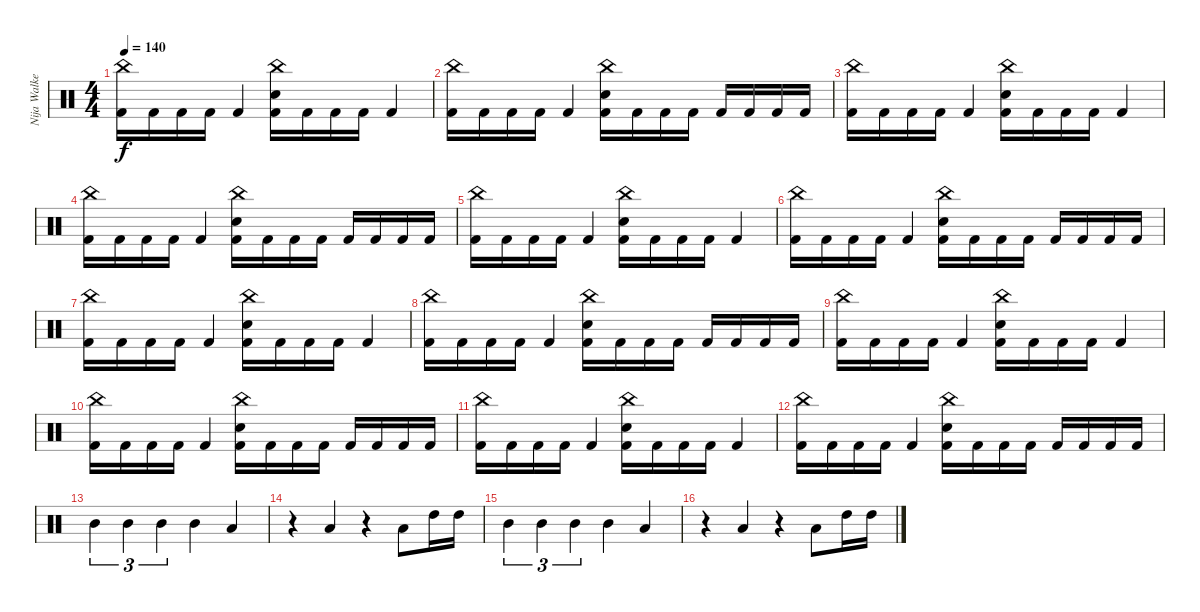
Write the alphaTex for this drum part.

\track ("Nija Walker" "Nija Walke") {instrument percussion bank 151}
\staff {score}
\articulation defaults
\ts (4 4)
\tempo 140
\clef neutral
\ks c
("China (hit)" "Kick (hit) 2").16{dy f} "Kick (hit) 2".16 "Kick (hit) 2".16 "Kick (hit) 2".16 "Kick (hit) 2".4 ("China (hit)" "Electric Snare (hit)" "Kick (hit) 2").16 "Kick (hit) 2".16 "Kick (hit) 2".16 "Kick (hit) 2".16 "Kick (hit) 2".4 |
("China (hit)" "Kick (hit) 2").16 "Kick (hit) 2".16 "Kick (hit) 2".16 "Kick (hit) 2".16 "Kick (hit) 2".4 ("China (hit)" "Electric Snare (hit)" "Kick (hit) 2").16 "Kick (hit) 2".16 "Kick (hit) 2".16 "Kick (hit) 2".16 "Kick (hit) 2".16 "Kick (hit) 2".16 "Kick (hit) 2".16 "Kick (hit) 2".16 |
("China (hit)" "Kick (hit) 2").16 "Kick (hit) 2".16 "Kick (hit) 2".16 "Kick (hit) 2".16 "Kick (hit) 2".4 ("China (hit)" "Electric Snare (hit)" "Kick (hit) 2").16 "Kick (hit) 2".16 "Kick (hit) 2".16 "Kick (hit) 2".16 "Kick (hit) 2".4 |
("China (hit)" "Kick (hit) 2").16 "Kick (hit) 2".16 "Kick (hit) 2".16 "Kick (hit) 2".16 "Kick (hit) 2".4 ("China (hit)" "Electric Snare (hit)" "Kick (hit) 2").16 "Kick (hit) 2".16 "Kick (hit) 2".16 "Kick (hit) 2".16 "Kick (hit) 2".16 "Kick (hit) 2".16 "Kick (hit) 2".16 "Kick (hit) 2".16 |
("China (hit)" "Kick (hit) 2").16 "Kick (hit) 2".16 "Kick (hit) 2".16 "Kick (hit) 2".16 "Kick (hit) 2".4 ("China (hit)" "Electric Snare (hit)" "Kick (hit) 2").16 "Kick (hit) 2".16 "Kick (hit) 2".16 "Kick (hit) 2".16 "Kick (hit) 2".4 |
("China (hit)" "Kick (hit) 2").16 "Kick (hit) 2".16 "Kick (hit) 2".16 "Kick (hit) 2".16 "Kick (hit) 2".4 ("China (hit)" "Electric Snare (hit)" "Kick (hit) 2").16 "Kick (hit) 2".16 "Kick (hit) 2".16 "Kick (hit) 2".16 "Kick (hit) 2".16 "Kick (hit) 2".16 "Kick (hit) 2".16 "Kick (hit) 2".16 |
("China (hit)" "Kick (hit) 2").16 "Kick (hit) 2".16 "Kick (hit) 2".16 "Kick (hit) 2".16 "Kick (hit) 2".4 ("China (hit)" "Electric Snare (hit)" "Kick (hit) 2").16 "Kick (hit) 2".16 "Kick (hit) 2".16 "Kick (hit) 2".16 "Kick (hit) 2".4 |
("China (hit)" "Kick (hit) 2").16 "Kick (hit) 2".16 "Kick (hit) 2".16 "Kick (hit) 2".16 "Kick (hit) 2".4 ("China (hit)" "Electric Snare (hit)" "Kick (hit) 2").16 "Kick (hit) 2".16 "Kick (hit) 2".16 "Kick (hit) 2".16 "Kick (hit) 2".16 "Kick (hit) 2".16 "Kick (hit) 2".16 "Kick (hit) 2".16 |
("China (hit)" "Kick (hit) 2").16 "Kick (hit) 2".16 "Kick (hit) 2".16 "Kick (hit) 2".16 "Kick (hit) 2".4 ("China (hit)" "Electric Snare (hit)" "Kick (hit) 2").16 "Kick (hit) 2".16 "Kick (hit) 2".16 "Kick (hit) 2".16 "Kick (hit) 2".4 |
("China (hit)" "Kick (hit) 2").16 "Kick (hit) 2".16 "Kick (hit) 2".16 "Kick (hit) 2".16 "Kick (hit) 2".4 ("China (hit)" "Electric Snare (hit)" "Kick (hit) 2").16 "Kick (hit) 2".16 "Kick (hit) 2".16 "Kick (hit) 2".16 "Kick (hit) 2".16 "Kick (hit) 2".16 "Kick (hit) 2".16 "Kick (hit) 2".16 |
("China (hit)" "Kick (hit) 2").16 "Kick (hit) 2".16 "Kick (hit) 2".16 "Kick (hit) 2".16 "Kick (hit) 2".4 ("China (hit)" "Electric Snare (hit)" "Kick (hit) 2").16 "Kick (hit) 2".16 "Kick (hit) 2".16 "Kick (hit) 2".16 "Kick (hit) 2".4 |
("China (hit)" "Kick (hit) 2").16 "Kick (hit) 2".16 "Kick (hit) 2".16 "Kick (hit) 2".16 "Kick (hit) 2".4 ("China (hit)" "Electric Snare (hit)" "Kick (hit) 2").16 "Kick (hit) 2".16 "Kick (hit) 2".16 "Kick (hit) 2".16 "Kick (hit) 2".16 "Kick (hit) 2".16 "Kick (hit) 2".16 "Kick (hit) 2".16 |
"Mid Tom (hit)".4{tu (3 2)} "Mid Tom (hit)".4{tu (3 2)} "Mid Tom (hit)".4{tu (3 2)} "Mid Tom (hit)".4 "Low Tom (hit)".4 |
r.4 "Low Tom (hit)".4 r.4 "Low Tom (hit)".8 "High Tom (hit)".16 "High Tom (hit)".16 |
"Mid Tom (hit)".4{tu (3 2)} "Mid Tom (hit)".4{tu (3 2)} "Mid Tom (hit)".4{tu (3 2)} "Mid Tom (hit)".4 "Low Tom (hit)".4 |
r.4 "Low Tom (hit)".4 r.4 "Low Tom (hit)".8 "High Tom (hit)".16 "High Tom (hit)".16
